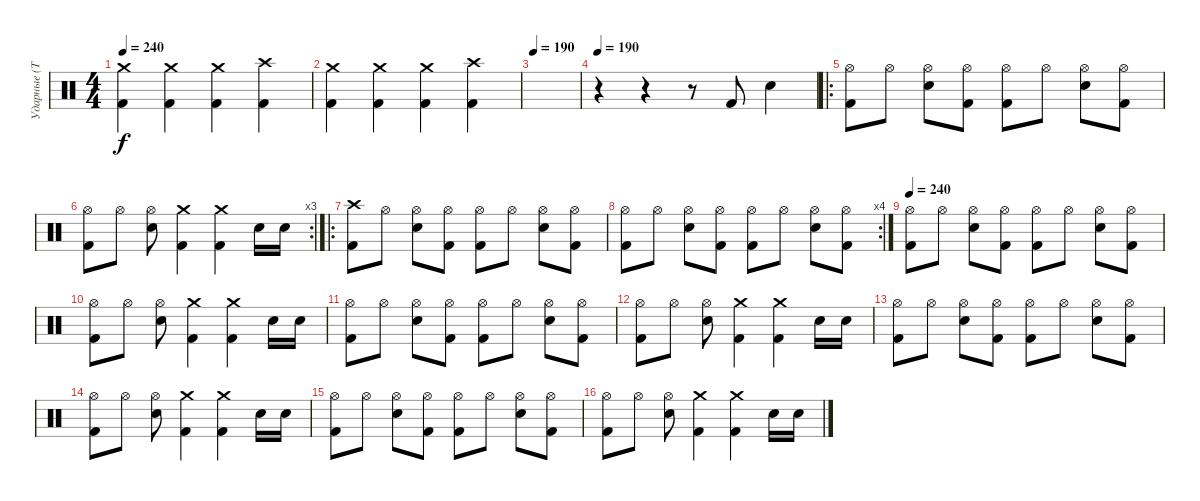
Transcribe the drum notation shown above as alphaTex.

\track ("Ударные (Тьодальв)" "Ударные (Т") {instrument percussion}
\staff {score}
\articulation defaults
\ts (4 4)
\tempo 240
\clef neutral
\ks c
("Crash medium (hit)" "Kick (hit) 2").4{dy f} ("Crash medium (hit)" "Kick (hit) 2").4 ("Crash medium (hit)" "Kick (hit) 2").4 ("Crash high (hit)" "Kick (hit) 2").4 |
("Crash medium (hit)" "Kick (hit) 2").4 ("Crash medium (hit)" "Kick (hit) 2").4 ("Crash medium (hit)" "Kick (hit) 2").4 ("Crash high (hit)" "Kick (hit) 2").4 |
\tempo 190
|
\tempo 190
r.4 r.4 r.8 "Kick (hit) 2".8 "Snare (hit) 2".4 |
\ro
("Hi-Hat (open)" "Kick (hit) 2").8 "Hi-Hat (open)".8 ("Hi-Hat (open)" "Snare (hit) 2").8 ("Hi-Hat (open)" "Kick (hit) 2").8 ("Hi-Hat (open)" "Kick (hit) 2").8 "Hi-Hat (open)".8 ("Hi-Hat (open)" "Snare (hit) 2").8 ("Hi-Hat (open)" "Kick (hit) 2").8 |
\rc 3
("Hi-Hat (open)" "Kick (hit) 2").8 "Hi-Hat (open)".8 ("Hi-Hat (open)" "Snare (hit) 2").8 ("Crash medium (hit)" "Kick (hit) 2").4 ("Crash medium (hit)" "Kick (hit) 2").4 "Snare (hit) 2".16 "Snare (hit) 2".16 |
\ro
("Crash high (hit)" "Kick (hit) 2").8 "Hi-Hat (open)".8 ("Hi-Hat (open)" "Snare (hit) 2").8 ("Hi-Hat (open)" "Kick (hit) 2").8 ("Hi-Hat (open)" "Kick (hit) 2").8 "Hi-Hat (open)".8 ("Hi-Hat (open)" "Snare (hit) 2").8 ("Hi-Hat (open)" "Kick (hit) 2").8 |
\rc 4
("Hi-Hat (open)" "Kick (hit) 2").8 "Hi-Hat (open)".8 ("Hi-Hat (open)" "Snare (hit) 2").8 ("Hi-Hat (open)" "Kick (hit) 2").8 ("Hi-Hat (open)" "Kick (hit) 2").8 "Hi-Hat (open)".8 ("Hi-Hat (open)" "Snare (hit) 2").8 ("Hi-Hat (open)" "Kick (hit) 2").8 |
\tempo 240
("Hi-Hat (open)" "Kick (hit) 2").8 "Hi-Hat (open)".8 ("Hi-Hat (open)" "Snare (hit) 2").8 ("Hi-Hat (open)" "Kick (hit) 2").8 ("Hi-Hat (open)" "Kick (hit) 2").8 "Hi-Hat (open)".8 ("Hi-Hat (open)" "Snare (hit) 2").8 ("Hi-Hat (open)" "Kick (hit) 2").8 |
("Hi-Hat (open)" "Kick (hit) 2").8 "Hi-Hat (open)".8 ("Hi-Hat (open)" "Snare (hit) 2").8 ("Crash medium (hit)" "Kick (hit) 2").4 ("Crash medium (hit)" "Kick (hit) 2").4 "Snare (hit) 2".16 "Snare (hit) 2".16 |
("Hi-Hat (open)" "Kick (hit) 2").8 "Hi-Hat (open)".8 ("Hi-Hat (open)" "Snare (hit) 2").8 ("Hi-Hat (open)" "Kick (hit) 2").8 ("Hi-Hat (open)" "Kick (hit) 2").8 "Hi-Hat (open)".8 ("Hi-Hat (open)" "Snare (hit) 2").8 ("Hi-Hat (open)" "Kick (hit) 2").8 |
("Hi-Hat (open)" "Kick (hit) 2").8 "Hi-Hat (open)".8 ("Hi-Hat (open)" "Snare (hit) 2").8 ("Crash medium (hit)" "Kick (hit) 2").4 ("Crash medium (hit)" "Kick (hit) 2").4 "Snare (hit) 2".16 "Snare (hit) 2".16 |
("Hi-Hat (open)" "Kick (hit) 2").8 "Hi-Hat (open)".8 ("Hi-Hat (open)" "Snare (hit) 2").8 ("Hi-Hat (open)" "Kick (hit) 2").8 ("Hi-Hat (open)" "Kick (hit) 2").8 "Hi-Hat (open)".8 ("Hi-Hat (open)" "Snare (hit) 2").8 ("Hi-Hat (open)" "Kick (hit) 2").8 |
("Hi-Hat (open)" "Kick (hit) 2").8 "Hi-Hat (open)".8 ("Hi-Hat (open)" "Snare (hit) 2").8 ("Crash medium (hit)" "Kick (hit) 2").4 ("Crash medium (hit)" "Kick (hit) 2").4 "Snare (hit) 2".16 "Snare (hit) 2".16 |
("Hi-Hat (open)" "Kick (hit) 2").8 "Hi-Hat (open)".8 ("Hi-Hat (open)" "Snare (hit) 2").8 ("Hi-Hat (open)" "Kick (hit) 2").8 ("Hi-Hat (open)" "Kick (hit) 2").8 "Hi-Hat (open)".8 ("Hi-Hat (open)" "Snare (hit) 2").8 ("Hi-Hat (open)" "Kick (hit) 2").8 |
("Hi-Hat (open)" "Kick (hit) 2").8 "Hi-Hat (open)".8 ("Hi-Hat (open)" "Snare (hit) 2").8 ("Crash medium (hit)" "Kick (hit) 2").4 ("Crash medium (hit)" "Kick (hit) 2").4 "Snare (hit) 2".16 "Snare (hit) 2".16
